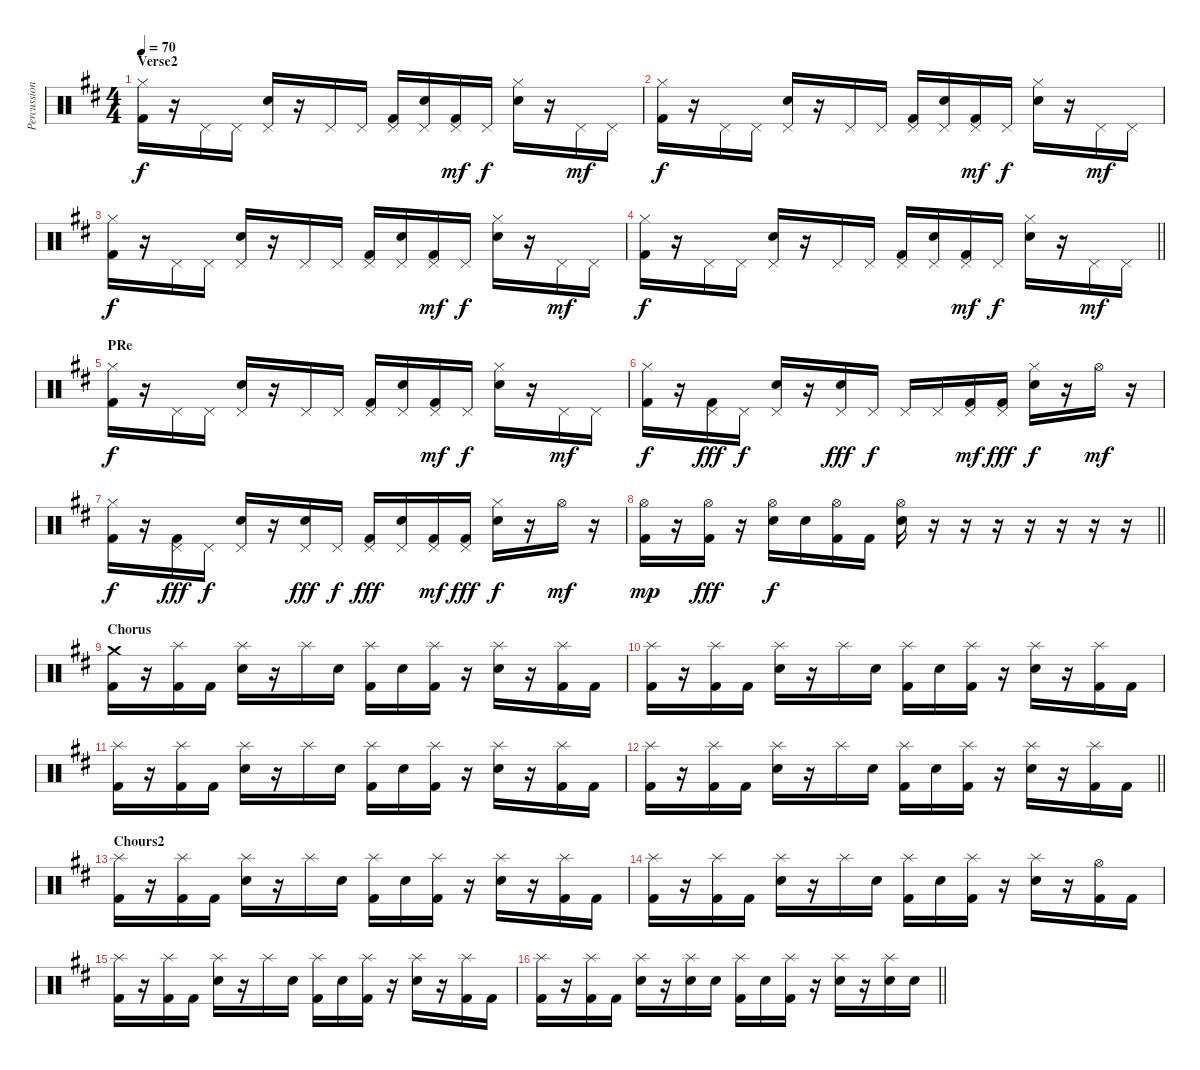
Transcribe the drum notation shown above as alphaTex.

\track ("Percussion" "Percussion") {instrument percussion}
\staff {score}
\articulation defaults
\ts (4 4)
\section ("" "Verse2")
\tempo 70
\clef neutral
\ks d
("Hi-Hat (closed)" "Kick (hit) 2").16{dy f} r.16 "Pedal Hi-Hat (hit)".16 "Pedal Hi-Hat (hit)".16 ("Pedal Hi-Hat (hit)" "Snare (hit) 2").16 r.16 "Pedal Hi-Hat (hit)".16 "Pedal Hi-Hat (hit)".16 ("Pedal Hi-Hat (hit)" "Kick (hit) 2").16 ("Pedal Hi-Hat (hit)" "Snare (hit) 2").16 ("Pedal Hi-Hat (hit)" "Kick (hit) 2").16{dy mf} "Pedal Hi-Hat (hit)".16{dy f} ("Hi-Hat (closed)" "Snare (hit) 2").16 r.16 "Pedal Hi-Hat (hit)".16{dy mf} "Pedal Hi-Hat (hit)".16 |
("Hi-Hat (closed)" "Kick (hit) 2").16{dy f} r.16 "Pedal Hi-Hat (hit)".16 "Pedal Hi-Hat (hit)".16 ("Pedal Hi-Hat (hit)" "Snare (hit) 2").16 r.16 "Pedal Hi-Hat (hit)".16 "Pedal Hi-Hat (hit)".16 ("Pedal Hi-Hat (hit)" "Kick (hit) 2").16 ("Pedal Hi-Hat (hit)" "Snare (hit) 2").16 ("Pedal Hi-Hat (hit)" "Kick (hit) 2").16{dy mf} "Pedal Hi-Hat (hit)".16{dy f} ("Hi-Hat (closed)" "Snare (hit) 2").16 r.16 "Pedal Hi-Hat (hit)".16{dy mf} "Pedal Hi-Hat (hit)".16 |
("Hi-Hat (closed)" "Kick (hit) 2").16{dy f} r.16 "Pedal Hi-Hat (hit)".16 "Pedal Hi-Hat (hit)".16 ("Pedal Hi-Hat (hit)" "Snare (hit) 2").16 r.16 "Pedal Hi-Hat (hit)".16 "Pedal Hi-Hat (hit)".16 ("Pedal Hi-Hat (hit)" "Kick (hit) 2").16 ("Pedal Hi-Hat (hit)" "Snare (hit) 2").16 ("Pedal Hi-Hat (hit)" "Kick (hit) 2").16{dy mf} "Pedal Hi-Hat (hit)".16{dy f} ("Hi-Hat (closed)" "Snare (hit) 2").16 r.16 "Pedal Hi-Hat (hit)".16{dy mf} "Pedal Hi-Hat (hit)".16 |
\barLineRight lightlight
("Hi-Hat (closed)" "Kick (hit) 2").16{dy f} r.16 "Pedal Hi-Hat (hit)".16 "Pedal Hi-Hat (hit)".16 ("Pedal Hi-Hat (hit)" "Snare (hit) 2").16 r.16 "Pedal Hi-Hat (hit)".16 "Pedal Hi-Hat (hit)".16 ("Pedal Hi-Hat (hit)" "Kick (hit) 2").16 ("Pedal Hi-Hat (hit)" "Snare (hit) 2").16 ("Pedal Hi-Hat (hit)" "Kick (hit) 2").16{dy mf} "Pedal Hi-Hat (hit)".16{dy f} ("Hi-Hat (closed)" "Snare (hit) 2").16 r.16 "Pedal Hi-Hat (hit)".16{dy mf} "Pedal Hi-Hat (hit)".16 |
\section ("" "PRe")
("Hi-Hat (closed)" "Kick (hit) 2").16{dy f} r.16 "Pedal Hi-Hat (hit)".16 "Pedal Hi-Hat (hit)".16 ("Pedal Hi-Hat (hit)" "Snare (hit) 2").16 r.16 "Pedal Hi-Hat (hit)".16 "Pedal Hi-Hat (hit)".16 ("Pedal Hi-Hat (hit)" "Kick (hit) 2").16 ("Pedal Hi-Hat (hit)" "Snare (hit) 2").16 ("Pedal Hi-Hat (hit)" "Kick (hit) 2").16{dy mf} "Pedal Hi-Hat (hit)".16{dy f} ("Hi-Hat (closed)" "Snare (hit) 2").16 r.16 "Pedal Hi-Hat (hit)".16{dy mf} "Pedal Hi-Hat (hit)".16 |
("Hi-Hat (closed)" "Kick (hit) 2").16{dy f} r.16 ("Pedal Hi-Hat (hit)" "Kick (hit) 2").16{dy fff} "Pedal Hi-Hat (hit)".16{dy f} ("Pedal Hi-Hat (hit)" "Snare (hit) 2").16 r.16 ("Pedal Hi-Hat (hit)" "Snare (hit) 2").16{dy fff} "Pedal Hi-Hat (hit)".16{dy f} "Pedal Hi-Hat (hit)".16 "Pedal Hi-Hat (hit)".16 ("Pedal Hi-Hat (hit)" "Kick (hit) 2").16{dy mf} ("Pedal Hi-Hat (hit)" "Kick (hit) 2").16{dy fff} ("Hi-Hat (closed)" "Snare (hit) 2").16{dy f} r.16 "Hi-Hat (open)".16{dy mf} r.16 |
("Hi-Hat (closed)" "Kick (hit) 2").16{dy f} r.16 ("Pedal Hi-Hat (hit)" "Kick (hit) 2").16{dy fff} "Pedal Hi-Hat (hit)".16{dy f} ("Pedal Hi-Hat (hit)" "Snare (hit) 2").16 r.16 ("Pedal Hi-Hat (hit)" "Snare (hit) 2").16{dy fff} "Pedal Hi-Hat (hit)".16{dy f} ("Pedal Hi-Hat (hit)" "Kick (hit) 2").16{dy fff} ("Pedal Hi-Hat (hit)" "Snare (hit) 2").16 ("Pedal Hi-Hat (hit)" "Kick (hit) 2").16{dy mf} ("Pedal Hi-Hat (hit)" "Kick (hit) 2").16{dy fff} ("Hi-Hat (closed)" "Snare (hit) 2").16{dy f} r.16 "Hi-Hat (open)".16{dy mf} r.16 |
\barLineRight lightlight
("Hi-Hat (open)" "Kick (hit) 2").16{dy mp} r.16 ("Hi-Hat (open)" "Kick (hit) 2").16{dy fff} r.16 ("Hi-Hat (open)" "Snare (hit) 2").16{dy f} "Snare (hit) 2".16 ("Hi-Hat (open)" "Kick (hit) 2").16 "Kick (hit) 2".16 ("Hi-Hat (open)" "Snare (hit) 2").16 r.16 r.16 r.16 r.16 r.16 r.16 r.16 |
\section ("" "Chorus")
("Crash medium (hit)" "Kick (hit) 2").16 r.16 ("Splash (hit)" "Kick (hit) 2").16 "Kick (hit) 2".16 ("Splash (hit)" "Snare (hit) 2").16 r.16 "Splash (hit)".16 "Snare (hit) 2".16 ("Splash (hit)" "Kick (hit) 2").16 "Snare (hit) 2".16 ("Splash (hit)" "Kick (hit) 2").16 r.16 ("Splash (hit)" "Snare (hit) 2").16 r.16 ("Splash (hit)" "Kick (hit) 2").16 "Kick (hit) 2".16 |
("Splash (hit)" "Kick (hit) 2").16 r.16 ("Splash (hit)" "Kick (hit) 2").16 "Kick (hit) 2".16 ("Splash (hit)" "Snare (hit) 2").16 r.16 "Splash (hit)".16 "Snare (hit) 2".16 ("Splash (hit)" "Kick (hit) 2").16 "Snare (hit) 2".16 ("Splash (hit)" "Kick (hit) 2").16 r.16 ("Splash (hit)" "Snare (hit) 2").16 r.16 ("Splash (hit)" "Kick (hit) 2").16 "Kick (hit) 2".16 |
("Splash (hit)" "Kick (hit) 2").16 r.16 ("Splash (hit)" "Kick (hit) 2").16 "Kick (hit) 2".16 ("Splash (hit)" "Snare (hit) 2").16 r.16 "Splash (hit)".16 "Snare (hit) 2".16 ("Splash (hit)" "Kick (hit) 2").16 "Snare (hit) 2".16 ("Splash (hit)" "Kick (hit) 2").16 r.16 ("Splash (hit)" "Snare (hit) 2").16 r.16 ("Splash (hit)" "Kick (hit) 2").16 "Kick (hit) 2".16 |
\barLineRight lightlight
("Splash (hit)" "Kick (hit) 2").16 r.16 ("Splash (hit)" "Kick (hit) 2").16 "Kick (hit) 2".16 ("Splash (hit)" "Snare (hit) 2").16 r.16 "Splash (hit)".16 "Snare (hit) 2".16 ("Splash (hit)" "Kick (hit) 2").16 "Snare (hit) 2".16 ("Splash (hit)" "Kick (hit) 2").16 r.16 ("Splash (hit)" "Snare (hit) 2").16 r.16 ("Splash (hit)" "Kick (hit) 2").16 "Kick (hit) 2".16 |
\section ("" "Chours2")
("Splash (hit)" "Kick (hit) 2").16 r.16 ("Splash (hit)" "Kick (hit) 2").16 "Kick (hit) 2".16 ("Splash (hit)" "Snare (hit) 2").16 r.16 "Splash (hit)".16 "Snare (hit) 2".16 ("Splash (hit)" "Kick (hit) 2").16 "Snare (hit) 2".16 ("Splash (hit)" "Kick (hit) 2").16 r.16 ("Splash (hit)" "Snare (hit) 2").16 r.16 ("Splash (hit)" "Kick (hit) 2").16 "Kick (hit) 2".16 |
("Splash (hit)" "Kick (hit) 2").16 r.16 ("Splash (hit)" "Kick (hit) 2").16 "Kick (hit) 2".16 ("Splash (hit)" "Snare (hit) 2").16 r.16 "Splash (hit)".16 "Snare (hit) 2".16 ("Splash (hit)" "Kick (hit) 2").16 "Snare (hit) 2".16 ("Splash (hit)" "Kick (hit) 2").16 r.16 ("Splash (hit)" "Snare (hit) 2").16 r.16 ("Hi-Hat (open)" "Kick (hit) 2").16 "Kick (hit) 2".16 |
("Splash (hit)" "Kick (hit) 2").16 r.16 ("Splash (hit)" "Kick (hit) 2").16 "Kick (hit) 2".16 ("Splash (hit)" "Snare (hit) 2").16 r.16 "Splash (hit)".16 "Snare (hit) 2".16 ("Splash (hit)" "Kick (hit) 2").16 "Snare (hit) 2".16 ("Splash (hit)" "Kick (hit) 2").16 r.16 ("Splash (hit)" "Snare (hit) 2").16 r.16 ("Splash (hit)" "Kick (hit) 2").16 "Kick (hit) 2".16 |
\barLineRight lightlight
("Splash (hit)" "Kick (hit) 2").16 r.16 ("Splash (hit)" "Kick (hit) 2").16 "Kick (hit) 2".16 ("Splash (hit)" "Snare (hit) 2").16 r.16 ("Splash (hit)" "Snare (hit) 2").16 "Snare (hit) 2".16 ("Splash (hit)" "Kick (hit) 2").16 "Snare (hit) 2".16 ("Splash (hit)" "Kick (hit) 2").16 r.16 ("Splash (hit)" "Snare (hit) 2").16 r.16 ("Splash (hit)" "Snare (hit) 2").16 "Snare (hit) 2".16
